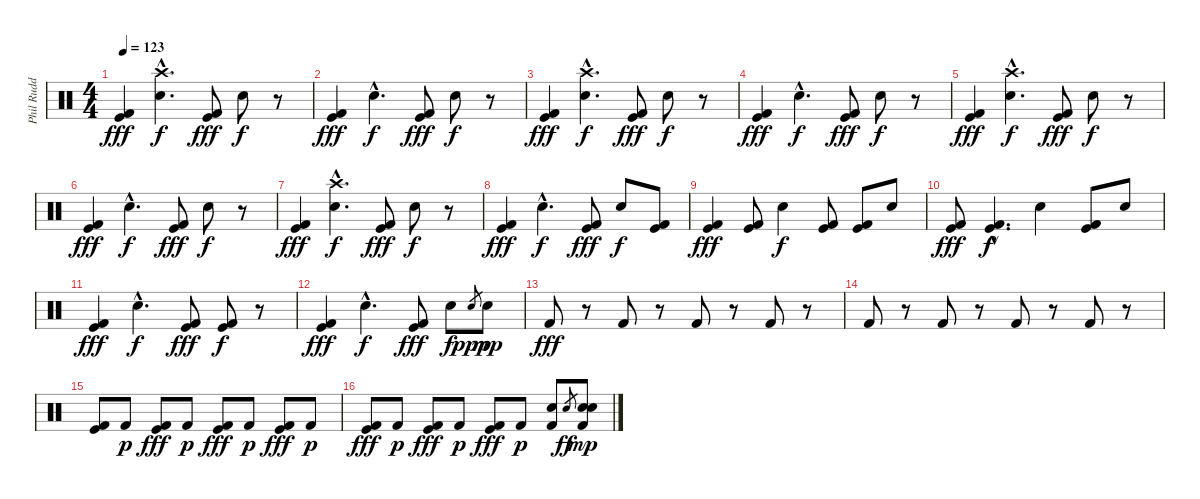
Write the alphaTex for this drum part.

\track ("Phil Rudd (Drums)" "Phil Rudd ") {instrument percussion}
\staff {score}
\articulation defaults
\ts (4 4)
\tempo 123
\clef neutral
\ks c
("Kick (hit) 2" "Kick (hit)").4{dy fff} ("Snare (hit) 2"{hac} "Crash high (hit)"{hac}).4{d dy f} ("Kick (hit) 2" "Kick (hit)").8{dy fff} "Snare (hit) 2".8{dy f} r.8 |
("Kick (hit) 2" "Kick (hit)").4{dy fff} "Snare (hit) 2"{hac}.4{d dy f} ("Kick (hit) 2" "Kick (hit)").8{dy fff} "Snare (hit) 2".8{dy f} r.8 |
("Kick (hit) 2" "Kick (hit)").4{dy fff} ("Snare (hit) 2"{hac} "Crash high (hit)"{hac}).4{d dy f} ("Kick (hit) 2" "Kick (hit)").8{dy fff} "Snare (hit) 2".8{dy f} r.8 |
("Kick (hit) 2" "Kick (hit)").4{dy fff} "Snare (hit) 2"{hac}.4{d dy f} ("Kick (hit) 2" "Kick (hit)").8{dy fff} "Snare (hit) 2".8{dy f} r.8 |
("Kick (hit) 2" "Kick (hit)").4{dy fff} ("Snare (hit) 2"{hac} "Crash high (hit)"{hac}).4{d dy f} ("Kick (hit) 2" "Kick (hit)").8{dy fff} "Snare (hit) 2".8{dy f} r.8 |
("Kick (hit) 2" "Kick (hit)").4{dy fff} "Snare (hit) 2"{hac}.4{d dy f} ("Kick (hit) 2" "Kick (hit)").8{dy fff} "Snare (hit) 2".8{dy f} r.8 |
("Kick (hit) 2" "Kick (hit)").4{dy fff} ("Snare (hit) 2"{hac} "Crash high (hit)"{hac}).4{d dy f} ("Kick (hit) 2" "Kick (hit)").8{dy fff} "Snare (hit) 2".8{dy f} r.8 |
("Kick (hit) 2" "Kick (hit)").4{dy fff} "Snare (hit) 2"{hac}.4{d dy f} ("Kick (hit) 2" "Kick (hit)").8{dy fff} "Snare (hit) 2".8{dy f} ("Kick (hit) 2" "Kick (hit)").8 |
("Kick (hit) 2" "Kick (hit)").4{dy fff} ("Kick (hit) 2" "Kick (hit)").8 "Snare (hit) 2".4{dy f} ("Kick (hit) 2" "Kick (hit)").8 ("Kick (hit) 2" "Kick (hit)").8 "Snare (hit) 2".8 |
("Kick (hit) 2" "Kick (hit)").8{dy fff} ("Kick (hit) 2"{hac} "Kick (hit)").4{d dy f} "Snare (hit) 2".4 ("Kick (hit) 2" "Kick (hit)").8 "Snare (hit) 2".8 |
("Kick (hit) 2" "Kick (hit)").4{dy fff} "Snare (hit) 2"{hac}.4{d dy f} ("Kick (hit) 2" "Kick (hit)").8{dy fff} ("Kick (hit) 2" "Kick (hit)").8{dy f} r.8 |
("Kick (hit) 2" "Kick (hit)").4{dy fff} "Snare (hit) 2"{hac}.4{d dy f} ("Kick (hit) 2" "Kick (hit)").8{dy fff} "Snare (hit) 2".8{dy f} "Electric Snare (hit)".8{gr dy ppp} "Electric Snare (hit)".8{dy mp} |
"Kick (hit) 2".8{dy fff} r.8 "Kick (hit) 2".8 r.8 "Kick (hit) 2".8 r.8 "Kick (hit) 2".8 r.8 |
"Kick (hit) 2".8 r.8 "Kick (hit) 2".8 r.8 "Kick (hit) 2".8 r.8 "Kick (hit) 2".8 r.8 |
("Kick (hit) 2" "Kick (hit)").8 "Kick (hit) 2".8{dy p} ("Kick (hit) 2" "Kick (hit)").8{dy fff} "Kick (hit) 2".8{dy p} ("Kick (hit) 2" "Kick (hit)").8{dy fff} "Kick (hit) 2".8{dy p} ("Kick (hit) 2" "Kick (hit)").8{dy fff} "Kick (hit) 2".8{dy p} |
("Kick (hit) 2" "Kick (hit)").8{dy fff} "Kick (hit) 2".8{dy p} ("Kick (hit) 2" "Kick (hit)").8{dy fff} "Kick (hit) 2".8{dy p} ("Kick (hit) 2" "Kick (hit)").8{dy fff} "Kick (hit) 2".8{dy p} ("Kick (hit) 2" "Electric Snare (hit)").8 "Electric Snare (hit)".8{gr dy ff} ("Kick (hit) 2" "Electric Snare (hit)" "Electric Snare (hit)").8{dy mp}
